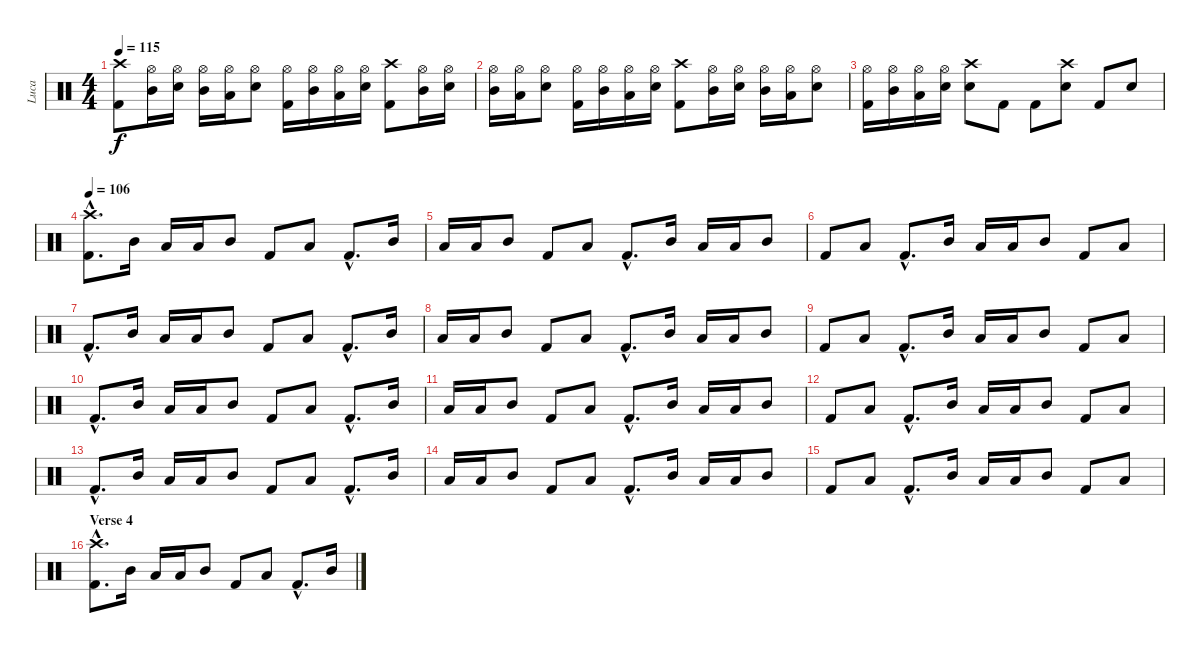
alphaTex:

\track ("Luca" "Luca") {instrument percussion}
\staff {score}
\articulation defaults
\ts (4 4)
\tempo 115
\clef neutral
\ks c
("Crash high (hit)" "Kick (hit) 2").8{dy f} ("Hi-Hat (open)" "Mid Tom (hit)").16 ("Hi-Hat (open)" "Snare (hit) 2").16 ("Hi-Hat (open)" "Mid Tom (hit)").16 ("Hi-Hat (open)" "Low Floor Tom (hit)").16 ("Hi-Hat (open)" "Snare (hit) 2").8 ("Hi-Hat (open)" "Kick (hit) 2").16 ("Hi-Hat (open)" "Mid Tom (hit)").16 ("Hi-Hat (open)" "Low Floor Tom (hit)").16 ("Hi-Hat (open)" "Snare (hit) 2").16 ("Crash high (hit)" "Kick (hit) 2").8 ("Hi-Hat (open)" "Mid Tom (hit)").16 ("Hi-Hat (open)" "Snare (hit) 2").16 |
("Hi-Hat (open)" "Mid Tom (hit)").16 ("Hi-Hat (open)" "Low Floor Tom (hit)").16 ("Hi-Hat (open)" "Snare (hit) 2").8 ("Hi-Hat (open)" "Kick (hit) 2").16 ("Hi-Hat (open)" "Mid Tom (hit)").16 ("Hi-Hat (open)" "Low Floor Tom (hit)").16 ("Hi-Hat (open)" "Snare (hit) 2").16 ("Crash high (hit)" "Kick (hit) 2").8 ("Hi-Hat (open)" "Mid Tom (hit)").16 ("Hi-Hat (open)" "Snare (hit) 2").16 ("Hi-Hat (open)" "Mid Tom (hit)").16 ("Hi-Hat (open)" "Low Floor Tom (hit)").16 ("Hi-Hat (open)" "Snare (hit) 2").8 |
("Hi-Hat (open)" "Kick (hit) 2").16 ("Hi-Hat (open)" "Mid Tom (hit)").16 ("Hi-Hat (open)" "Low Floor Tom (hit)").16 ("Hi-Hat (open)" "Snare (hit) 2").16 ("Crash high (hit)" "Snare (hit) 2").8 "Kick (hit) 2".8 "Kick (hit) 2".8 ("Crash high (hit)" "Snare (hit) 2").8 "Kick (hit) 2".8 "Snare (hit) 2".8 |
\tempo 106
("Crash high (hit)"{hac} "Kick (hit) 2"{hac}).8{d} "Mid Tom (hit)".16 "Low Floor Tom (hit)".16 "Low Floor Tom (hit)".16 "Mid Tom (hit)".8 "Kick (hit) 2".8 "Low Floor Tom (hit)".8 "Kick (hit) 2"{hac}.8{d} "Mid Tom (hit)".16 |
"Low Floor Tom (hit)".16 "Low Floor Tom (hit)".16 "Mid Tom (hit)".8 "Kick (hit) 2".8 "Low Floor Tom (hit)".8 "Kick (hit) 2"{hac}.8{d} "Mid Tom (hit)".16 "Low Floor Tom (hit)".16 "Low Floor Tom (hit)".16 "Mid Tom (hit)".8 |
"Kick (hit) 2".8 "Low Floor Tom (hit)".8 "Kick (hit) 2"{hac}.8{d} "Mid Tom (hit)".16 "Low Floor Tom (hit)".16 "Low Floor Tom (hit)".16 "Mid Tom (hit)".8 "Kick (hit) 2".8 "Low Floor Tom (hit)".8 |
"Kick (hit) 2"{hac}.8{d} "Mid Tom (hit)".16 "Low Floor Tom (hit)".16 "Low Floor Tom (hit)".16 "Mid Tom (hit)".8 "Kick (hit) 2".8 "Low Floor Tom (hit)".8 "Kick (hit) 2"{hac}.8{d} "Mid Tom (hit)".16 |
"Low Floor Tom (hit)".16 "Low Floor Tom (hit)".16 "Mid Tom (hit)".8 "Kick (hit) 2".8 "Low Floor Tom (hit)".8 "Kick (hit) 2"{hac}.8{d} "Mid Tom (hit)".16 "Low Floor Tom (hit)".16 "Low Floor Tom (hit)".16 "Mid Tom (hit)".8 |
"Kick (hit) 2".8 "Low Floor Tom (hit)".8 "Kick (hit) 2"{hac}.8{d} "Mid Tom (hit)".16 "Low Floor Tom (hit)".16 "Low Floor Tom (hit)".16 "Mid Tom (hit)".8 "Kick (hit) 2".8 "Low Floor Tom (hit)".8 |
"Kick (hit) 2"{hac}.8{d} "Mid Tom (hit)".16 "Low Floor Tom (hit)".16 "Low Floor Tom (hit)".16 "Mid Tom (hit)".8 "Kick (hit) 2".8 "Low Floor Tom (hit)".8 "Kick (hit) 2"{hac}.8{d} "Mid Tom (hit)".16 |
"Low Floor Tom (hit)".16 "Low Floor Tom (hit)".16 "Mid Tom (hit)".8 "Kick (hit) 2".8 "Low Floor Tom (hit)".8 "Kick (hit) 2"{hac}.8{d} "Mid Tom (hit)".16 "Low Floor Tom (hit)".16 "Low Floor Tom (hit)".16 "Mid Tom (hit)".8 |
"Kick (hit) 2".8 "Low Floor Tom (hit)".8 "Kick (hit) 2"{hac}.8{d} "Mid Tom (hit)".16 "Low Floor Tom (hit)".16 "Low Floor Tom (hit)".16 "Mid Tom (hit)".8 "Kick (hit) 2".8 "Low Floor Tom (hit)".8 |
"Kick (hit) 2"{hac}.8{d} "Mid Tom (hit)".16 "Low Floor Tom (hit)".16 "Low Floor Tom (hit)".16 "Mid Tom (hit)".8 "Kick (hit) 2".8 "Low Floor Tom (hit)".8 "Kick (hit) 2"{hac}.8{d} "Mid Tom (hit)".16 |
"Low Floor Tom (hit)".16 "Low Floor Tom (hit)".16 "Mid Tom (hit)".8 "Kick (hit) 2".8 "Low Floor Tom (hit)".8 "Kick (hit) 2"{hac}.8{d} "Mid Tom (hit)".16 "Low Floor Tom (hit)".16 "Low Floor Tom (hit)".16 "Mid Tom (hit)".8 |
"Kick (hit) 2".8 "Low Floor Tom (hit)".8 "Kick (hit) 2"{hac}.8{d} "Mid Tom (hit)".16 "Low Floor Tom (hit)".16 "Low Floor Tom (hit)".16 "Mid Tom (hit)".8 "Kick (hit) 2".8 "Low Floor Tom (hit)".8 |
\section ("" "Verse 4")
("Crash high (hit)"{hac} "Kick (hit) 2"{hac}).8{d} "Mid Tom (hit)".16 "Low Floor Tom (hit)".16 "Low Floor Tom (hit)".16 "Mid Tom (hit)".8 "Kick (hit) 2".8 "Low Floor Tom (hit)".8 "Kick (hit) 2"{hac}.8{d} "Mid Tom (hit)".16
